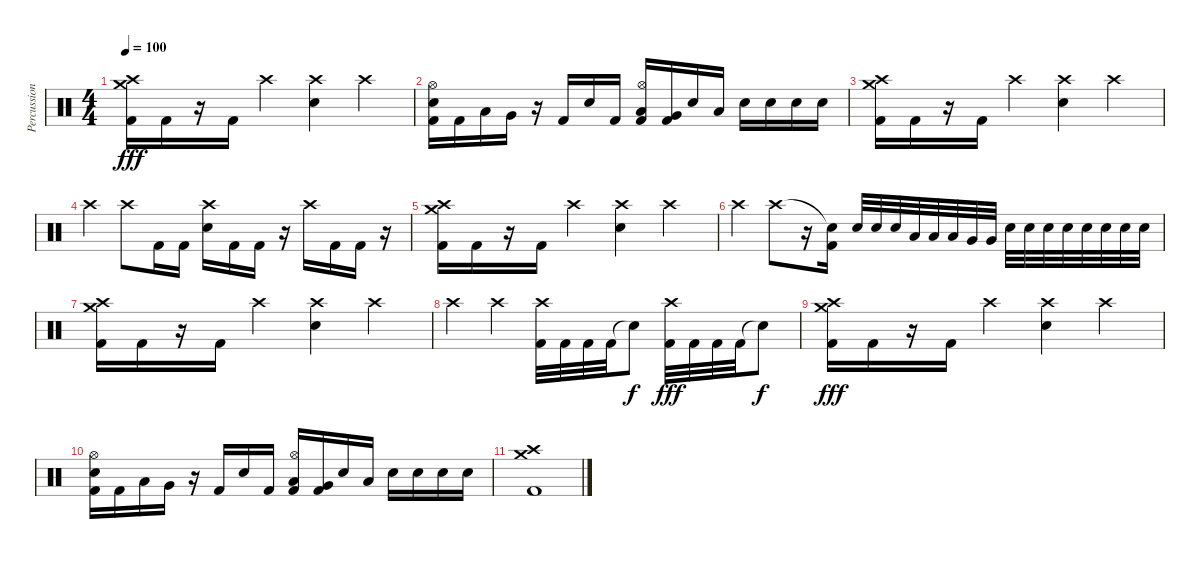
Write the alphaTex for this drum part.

\track ("Percussion" "Percussion") {instrument percussion}
\staff {score}
\articulation defaults
\ts (4 4)
\tempo 100
\clef neutral
\ks c
("Crash high (hit)" "Crash medium (hit)" "Kick (hit) 2").16{dy fff} "Kick (hit) 2".16 r.16 "Kick (hit) 2".16 "Crash high (hit)".4 ("Crash high (hit)" "Electric Snare (hit)").4 "Crash high (hit)".4 |
("Hi-Hat (open)" "Electric Snare (hit)" "Kick (hit) 2").16 "Kick (hit) 2".16 "Low Tom (hit)".16 "Very Low Tom (hit)".16 r.16 "Kick (hit) 2".16 "Electric Snare (hit)".16 "Kick (hit) 2".16 ("Hi-Hat (open)" "Low Tom (hit)" "Kick (hit) 2").16 ("Very Low Tom (hit)" "Kick (hit) 2").16 "Electric Snare (hit)".16 "Low Tom (hit)".16 "Electric Snare (hit)".16 "Electric Snare (hit)".16 "Electric Snare (hit)".16 "Electric Snare (hit)".16 |
("Crash high (hit)" "Crash medium (hit)" "Kick (hit) 2").16 "Kick (hit) 2".16 r.16 "Kick (hit) 2".16 "Crash high (hit)".4 ("Crash high (hit)" "Electric Snare (hit)").4 "Crash high (hit)".4 |
"Crash high (hit)".4 "Crash high (hit)".8 "Kick (hit) 2".16 "Kick (hit) 2".16 ("Crash high (hit)" "Electric Snare (hit)").16 "Kick (hit) 2".16 "Kick (hit) 2".16 r.16 "Crash high (hit)".16 "Kick (hit) 2".16 "Kick (hit) 2".16 r.16 |
("Crash high (hit)" "Crash medium (hit)" "Kick (hit) 2").16 "Kick (hit) 2".16 r.16 "Kick (hit) 2".16 "Crash high (hit)".4 ("Crash high (hit)" "Electric Snare (hit)").4 "Crash high (hit)".4 |
"Crash high (hit)".4 "Crash high (hit)".8 r.16 ("Snare (hit)"{t} "Kick (hit) 2").16 "Electric Snare (hit)".32 "Electric Snare (hit)".32 "Electric Snare (hit)".32 "Low Tom (hit)".32 "Low Tom (hit)".32 "Low Tom (hit)".32 "Very Low Tom (hit)".32 "Very Low Tom (hit)".32 "Electric Snare (hit)".32 "Electric Snare (hit)".32 "Electric Snare (hit)".32 "Electric Snare (hit)".32 "Electric Snare (hit)".32 "Electric Snare (hit)".32 "Electric Snare (hit)".32 "Electric Snare (hit)".32 |
("Crash high (hit)" "Crash medium (hit)" "Kick (hit) 2").16 "Kick (hit) 2".16 r.16 "Kick (hit) 2".16 "Crash high (hit)".4 ("Crash high (hit)" "Electric Snare (hit)").4 "Crash high (hit)".4 |
"Crash high (hit)".4 "Crash high (hit)".4 ("Crash high (hit)" "Kick (hit) 2").32 "Kick (hit) 2".32 "Kick (hit) 2".32 "Kick (hit) 2".32 "Snare (hit)"{t}.8{dy f} ("Crash high (hit)" "Kick (hit) 2").32{dy fff} "Kick (hit) 2".32 "Kick (hit) 2".32 "Kick (hit) 2".32 "Snare (hit)"{t}.8{dy f} |
("Crash high (hit)" "Crash medium (hit)" "Kick (hit) 2").16{dy fff} "Kick (hit) 2".16 r.16 "Kick (hit) 2".16 "Crash high (hit)".4 ("Crash high (hit)" "Electric Snare (hit)").4 "Crash high (hit)".4 |
("Hi-Hat (open)" "Electric Snare (hit)" "Kick (hit) 2").16 "Kick (hit) 2".16 "Low Tom (hit)".16 "Very Low Tom (hit)".16 r.16 "Kick (hit) 2".16 "Electric Snare (hit)".16 "Kick (hit) 2".16 ("Hi-Hat (open)" "Low Tom (hit)" "Kick (hit) 2").16 ("Very Low Tom (hit)" "Kick (hit) 2").16 "Electric Snare (hit)".16 "Low Tom (hit)".16 "Electric Snare (hit)".16 "Electric Snare (hit)".16 "Electric Snare (hit)".16 "Electric Snare (hit)".16 |
("Crash high (hit)" "Crash medium (hit)" "Kick (hit) 2").1
